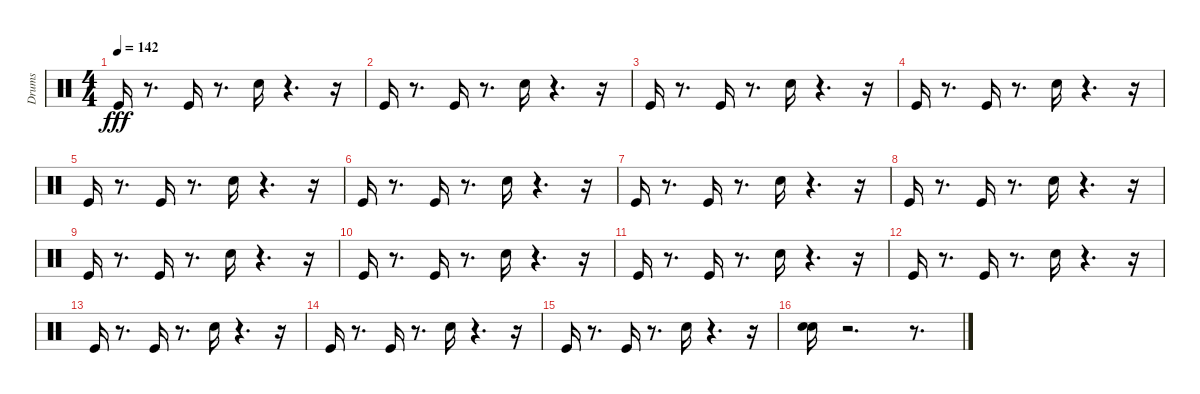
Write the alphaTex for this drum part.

\track ("Drums" "Drums") {instrument percussion}
\staff {score}
\articulation defaults
\ts (4 4)
\tempo 142
\clef neutral
\ks c "Kick (hit)".16{dy fff}
r.8{d} "Kick (hit)".16 r.8{d} "Snare (hit) 2".16 r.4{d} r.16 |
"Kick (hit)".16 r.8{d} "Kick (hit)".16 r.8{d} "Snare (hit) 2".16 r.4{d} r.16 |
"Kick (hit)".16 r.8{d} "Kick (hit)".16 r.8{d} "Snare (hit) 2".16 r.4{d} r.16 |
"Kick (hit)".16 r.8{d} "Kick (hit)".16 r.8{d} "Snare (hit) 2".16 r.4{d} r.16 |
"Kick (hit)".16 r.8{d} "Kick (hit)".16 r.8{d} "Snare (hit) 2".16 r.4{d} r.16 |
"Kick (hit)".16 r.8{d} "Kick (hit)".16 r.8{d} "Snare (hit) 2".16 r.4{d} r.16 |
"Kick (hit)".16 r.8{d} "Kick (hit)".16 r.8{d} "Snare (hit) 2".16 r.4{d} r.16 |
"Kick (hit)".16 r.8{d} "Kick (hit)".16 r.8{d} "Snare (hit) 2".16 r.4{d} r.16 |
"Kick (hit)".16 r.8{d} "Kick (hit)".16 r.8{d} "Snare (hit) 2".16 r.4{d} r.16 |
"Kick (hit)".16 r.8{d} "Kick (hit)".16 r.8{d} "Snare (hit) 2".16 r.4{d} r.16 |
"Kick (hit)".16 r.8{d} "Kick (hit)".16 r.8{d} "Snare (hit) 2".16 r.4{d} r.16 |
"Kick (hit)".16 r.8{d} "Kick (hit)".16 r.8{d} "Snare (hit) 2".16 r.4{d} r.16 |
"Kick (hit)".16 r.8{d} "Kick (hit)".16 r.8{d} "Snare (hit) 2".16 r.4{d} r.16 |
"Kick (hit)".16 r.8{d} "Kick (hit)".16 r.8{d} "Snare (hit) 2".16 r.4{d} r.16 |
"Kick (hit)".16 r.8{d} "Kick (hit)".16 r.8{d} "Snare (hit) 2".16 r.4{d} r.16 |
("Snare (hit) 2" "Electric Snare (hit)").16 r.2{d} r.8{d}
